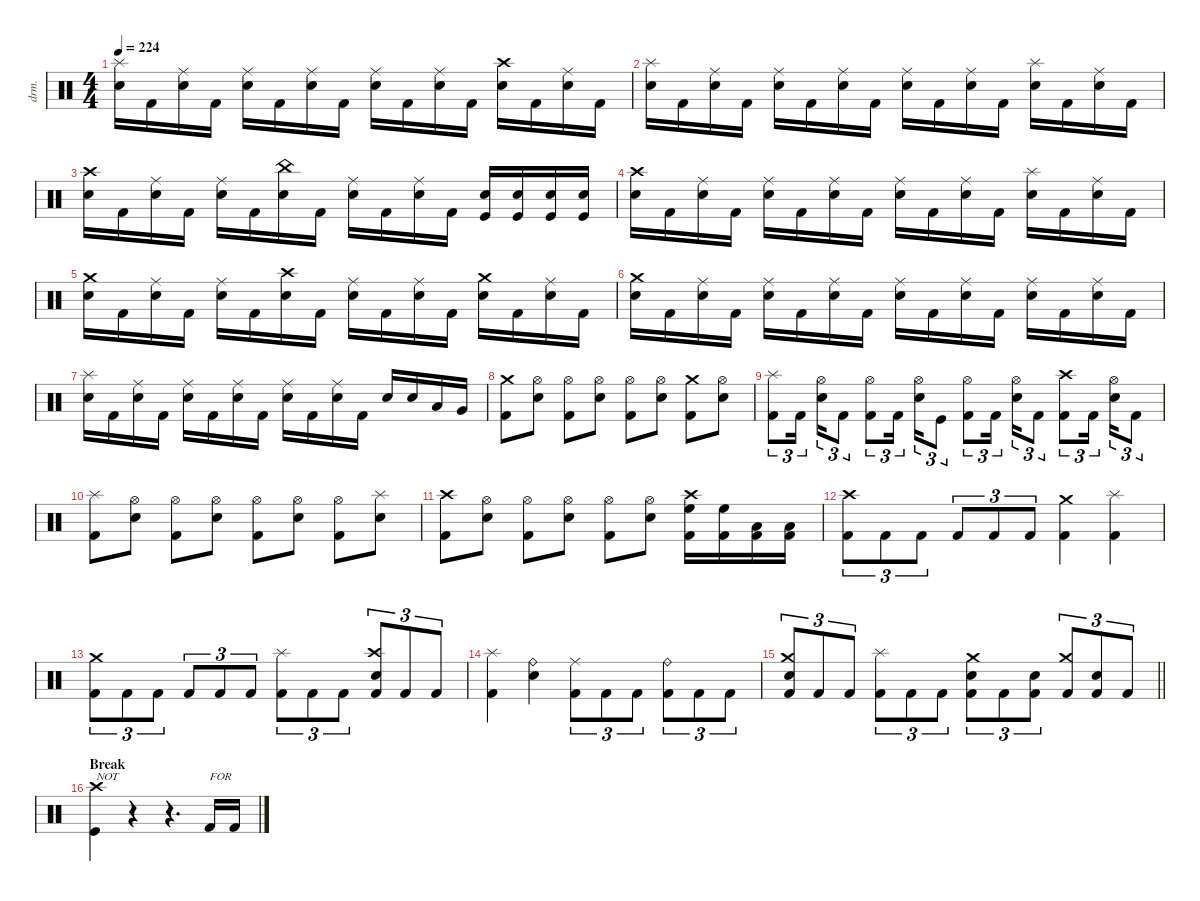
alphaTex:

\defaultSystemsLayout 4
\hideDynamics
\bracketExtendMode nobrackets
\otherSystemsTrackNameOrientation horizontal
\track ("Percussion" "drm.") {instrument percussion}
\staff {score}
\articulation defaults
\ts (4 4)
\tempo 224
\clef neutral
\ks c
("Splash (hit)" "Snare (hit) 2").16{dy f beam Down} "Kick (hit) 2".16{beam Down} ("Ride (middle)" "Snare (hit) 2").16{beam Down} "Kick (hit) 2".16{beam Down} ("Ride (middle)" "Snare (hit) 2").16{beam Down} "Kick (hit) 2".16{beam Down} ("Ride (middle)" "Snare (hit) 2").16{beam Down} "Kick (hit) 2".16{beam Down} ("Ride (middle)" "Snare (hit) 2").16{beam Down} "Kick (hit) 2".16{beam Down} ("Ride (middle)" "Snare (hit) 2").16{beam Down} "Kick (hit) 2".16{beam Down} ("Crash high (hit)" "Snare (hit) 2").16{beam Down} "Kick (hit) 2".16{beam Down} ("Ride (middle)" "Snare (hit) 2").16{beam Down} "Kick (hit) 2".16{beam Down} |
("Splash (hit)" "Snare (hit) 2").16{beam Down} "Kick (hit) 2".16{beam Down} ("Ride (middle)" "Snare (hit) 2").16{beam Down} "Kick (hit) 2".16{beam Down} ("Ride (middle)" "Snare (hit) 2").16{beam Down} "Kick (hit) 2".16{beam Down} ("Ride (middle)" "Snare (hit) 2").16{beam Down} "Kick (hit) 2".16{beam Down} ("Ride (middle)" "Snare (hit) 2").16{beam Down} "Kick (hit) 2".16{beam Down} ("Ride (middle)" "Snare (hit) 2").16{beam Down} "Kick (hit) 2".16{beam Down} ("Splash (hit)" "Snare (hit) 2").16{beam Down} "Kick (hit) 2".16{beam Down} ("Ride (middle)" "Snare (hit) 2").16{beam Down} "Kick (hit) 2".16{beam Down} |
("Crash high (hit)" "Snare (hit) 2").16{beam Down} "Kick (hit) 2".16{beam Down} ("Ride (middle)" "Snare (hit) 2").16{beam Down} "Kick (hit) 2".16{beam Down} ("Ride (middle)" "Snare (hit) 2").16{beam Down} "Kick (hit) 2".16{beam Down} ("China (hit)" "Snare (hit) 2").16{beam Down} "Kick (hit) 2".16{beam Down} ("Ride (middle)" "Snare (hit) 2").16{beam Down} "Kick (hit) 2".16{beam Down} ("Ride (middle)" "Snare (hit) 2").16{beam Down} "Kick (hit) 2".16{beam Down} ("Snare (hit) 2" "Kick (hit)").16{beam Up} ("Snare (hit) 2" "Kick (hit)").16{beam Up} ("Snare (hit) 2" "Kick (hit)").16{beam Up} ("Snare (hit) 2" "Kick (hit)").16{beam Up} |
("Crash high (hit)" "Snare (hit) 2").16{beam Down} "Kick (hit) 2".16{beam Down} ("Ride (middle)" "Snare (hit) 2").16{beam Down} "Kick (hit) 2".16{beam Down} ("Ride (middle)" "Snare (hit) 2").16{beam Down} "Kick (hit) 2".16{beam Down} ("Ride (middle)" "Snare (hit) 2").16{beam Down} "Kick (hit) 2".16{beam Down} ("Ride (middle)" "Snare (hit) 2").16{beam Down} "Kick (hit) 2".16{beam Down} ("Ride (middle)" "Snare (hit) 2").16{beam Down} "Kick (hit) 2".16{beam Down} ("Splash (hit)" "Snare (hit) 2").16{beam Down} "Kick (hit) 2".16{beam Down} ("Ride (middle)" "Snare (hit) 2").16{beam Down} "Kick (hit) 2".16{beam Down} |
("Crash medium (hit)" "Snare (hit) 2").16{beam Down} "Kick (hit) 2".16{beam Down} ("Ride (middle)" "Snare (hit) 2").16{beam Down} "Kick (hit) 2".16{beam Down} ("Ride (middle)" "Snare (hit) 2").16{beam Down} "Kick (hit) 2".16{beam Down} ("Crash high (hit)" "Snare (hit) 2").16{beam Down} "Kick (hit) 2".16{beam Down} ("Ride (middle)" "Snare (hit) 2").16{beam Down} "Kick (hit) 2".16{beam Down} ("Ride (middle)" "Snare (hit) 2").16{beam Down} "Kick (hit) 2".16{beam Down} ("Crash medium (hit)" "Snare (hit) 2").16{beam Down} "Kick (hit) 2".16{beam Down} ("Ride (middle)" "Snare (hit) 2").16{beam Down} "Kick (hit) 2".16{beam Down} |
("Crash medium (hit)" "Snare (hit) 2").16{beam Down} "Kick (hit) 2".16{beam Down} ("Ride (middle)" "Snare (hit) 2").16{beam Down} "Kick (hit) 2".16{beam Down} ("Ride (middle)" "Snare (hit) 2").16{beam Down} "Kick (hit) 2".16{beam Down} ("Ride (middle)" "Snare (hit) 2").16{beam Down} "Kick (hit) 2".16{beam Down} ("Ride (middle)" "Snare (hit) 2").16{beam Down} "Kick (hit) 2".16{beam Down} ("Ride (middle)" "Snare (hit) 2").16{beam Down} "Kick (hit) 2".16{beam Down} ("Ride (middle)" "Snare (hit) 2").16{beam Down} "Kick (hit) 2".16{beam Down} ("Ride (middle)" "Snare (hit) 2").16{beam Down} "Kick (hit) 2".16{beam Down} |
("Splash (hit)" "Snare (hit) 2").16{beam Down} "Kick (hit) 2".16{beam Down} ("Ride (middle)" "Snare (hit) 2").16{beam Down} "Kick (hit) 2".16{beam Down} ("Ride (middle)" "Snare (hit) 2").16{beam Down} "Kick (hit) 2".16{beam Down} ("Ride (middle)" "Snare (hit) 2").16{beam Down} "Kick (hit) 2".16{beam Down} ("Ride (middle)" "Snare (hit) 2").16{beam Down} "Kick (hit) 2".16{beam Down} ("Ride (middle)" "Snare (hit) 2").16{beam Down} "Kick (hit) 2".16{beam Down} "Snare (hit) 2".16{beam Up} "Snare (hit) 2".16{beam Up} "Low Tom (hit)".16{beam Up} "Very Low Tom (hit)".16{beam Up} |
("Crash medium (hit)" "Kick (hit) 2").8{beam Down} ("Hi-Hat (open)" "Snare (hit) 2").8{beam Down} ("Hi-Hat (open)" "Kick (hit) 2").8{beam Down} ("Hi-Hat (open)" "Snare (hit) 2").8{beam Down} ("Hi-Hat (open)" "Kick (hit) 2").8{beam Down} ("Hi-Hat (open)" "Snare (hit) 2").8{beam Down} ("Crash medium (hit)" "Kick (hit) 2").8{beam Down} ("Hi-Hat (open)" "Snare (hit) 2").8{beam Down} |
("Splash (hit)" "Kick (hit) 2").8{tu (3 2) beam Down} "Kick (hit) 2".16{tu (3 2) beam Down} ("Hi-Hat (open)" "Snare (hit) 2").16{tu (3 2) beam Down} "Kick (hit) 2".8{tu (3 2) beam Down} ("Hi-Hat (open)" "Kick (hit) 2").8{tu (3 2) beam Down} "Kick (hit) 2".16{tu (3 2) beam Down} ("Hi-Hat (open)" "Snare (hit) 2").16{tu (3 2) beam Down} "Kick (hit)".8{tu (3 2) beam Down} ("Hi-Hat (open)" "Kick (hit) 2").8{tu (3 2) beam Down} "Kick (hit) 2".16{tu (3 2) beam Down} ("Hi-Hat (open)" "Snare (hit) 2").16{tu (3 2) beam Down} "Kick (hit) 2".8{tu (3 2) beam Down} ("Crash high (hit)" "Kick (hit) 2").8{tu (3 2) beam Down} "Kick (hit) 2".16{tu (3 2) beam Down} ("Hi-Hat (open)" "Snare (hit) 2").16{tu (3 2) beam Down} "Kick (hit) 2".8{tu (3 2) beam Down} |
("Splash (hit)" "Kick (hit) 2").8{beam Down} ("Hi-Hat (open)" "Snare (hit) 2").8{beam Down} ("Hi-Hat (open)" "Kick (hit) 2").8{beam Down} ("Hi-Hat (open)" "Snare (hit) 2").8{beam Down} ("Hi-Hat (open)" "Kick (hit) 2").8{beam Down} ("Hi-Hat (open)" "Snare (hit) 2").8{beam Down} ("Hi-Hat (open)" "Kick (hit) 2").8{beam Down} ("Splash (hit)" "Snare (hit) 2").8{beam Down} |
("Crash high (hit)" "Kick (hit) 2").8{beam Down} ("Hi-Hat (open)" "Snare (hit) 2").8{beam Down} ("Hi-Hat (open)" "Kick (hit) 2").8{beam Down} ("Hi-Hat (open)" "Snare (hit) 2").8{beam Down} ("Hi-Hat (open)" "Kick (hit) 2").8{beam Down} ("Hi-Hat (open)" "Snare (hit) 2").8{beam Down} ("Crash high (hit)" "High Floor Tom (hit)" "Kick (hit) 2").16{beam Down} ("High Floor Tom (hit)" "Kick (hit) 2").16{beam Down} ("Low Tom (hit)" "Kick (hit) 2").16{beam Down} ("Low Tom (hit)" "Kick (hit) 2").16{beam Down} |
("Crash high (hit)" "Kick (hit) 2").8{tu (3 2) beam Down} "Kick (hit) 2".8{tu (3 2) beam Down} "Kick (hit) 2".8{tu (3 2) beam Down} "Kick (hit) 2".8{tu (3 2) beam Up} "Kick (hit) 2".8{tu (3 2) beam Up} "Kick (hit) 2".8{tu (3 2) beam Up} ("Crash medium (hit)" "Kick (hit) 2").4{beam Down} ("Splash (hit)" "Kick (hit) 2").4{beam Down} |
("Crash medium (hit)" "Kick (hit) 2").8{tu (3 2) beam Down} "Kick (hit) 2".8{tu (3 2) beam Down} "Kick (hit) 2".8{tu (3 2) beam Down} "Kick (hit) 2".8{tu (3 2) beam Up} "Kick (hit) 2".8{tu (3 2) beam Up} "Kick (hit) 2".8{tu (3 2) beam Up} ("Splash (hit)" "Kick (hit) 2").8{tu (3 2) beam Down} "Kick (hit) 2".8{tu (3 2) beam Down} "Kick (hit) 2".8{tu (3 2) beam Down} ("Crash high (hit)" "Snare (hit) 2" "Kick (hit) 2").8{tu (3 2) beam Up} "Kick (hit) 2".8{tu (3 2) beam Up} "Kick (hit) 2".8{tu (3 2) beam Up} |
("Splash (hit)" "Kick (hit) 2").4{beam Down} ("Ride (bell)" "Snare (hit) 2").4{beam Down} ("Ride (middle)" "Kick (hit) 2").8{tu (3 2) beam Down} "Kick (hit) 2".8{tu (3 2) beam Down} "Kick (hit) 2".8{tu (3 2) beam Down} ("Ride (bell)" "Kick (hit) 2").8{tu (3 2) beam Down} "Kick (hit) 2".8{tu (3 2) beam Down} "Kick (hit) 2".8{tu (3 2) beam Down} |
\barLineRight lightlight
("Crash medium (hit)" "Snare (hit) 2" "Kick (hit) 2").8{tu (3 2) beam Up} "Kick (hit) 2".8{tu (3 2) beam Up} "Kick (hit) 2".8{tu (3 2) beam Up} ("Splash (hit)" "Kick (hit) 2").8{tu (3 2) beam Down} "Kick (hit) 2".8{tu (3 2) beam Down} "Kick (hit) 2".8{tu (3 2) beam Down} ("Crash medium (hit)" "Snare (hit) 2" "Kick (hit) 2").8{tu (3 2) beam Down} "Kick (hit) 2".8{tu (3 2) beam Down} ("Snare (hit) 2" "Kick (hit) 2").8{tu (3 2) beam Down} ("Crash medium (hit)" "Kick (hit) 2").8{tu (3 2) beam Up} ("Snare (hit) 2" "Kick (hit) 2").8{tu (3 2) beam Up} "Kick (hit) 2".8{tu (3 2) beam Up} |
\section ("" "Break")
("Crash high (hit)" "Kick (hit)").4{txt "NOT" beam Down} r.4{beam Down} r.4{d beam Down} "Kick (hit) 2".16{txt "FOR" beam Up} "Kick (hit) 2".16{beam Up}
